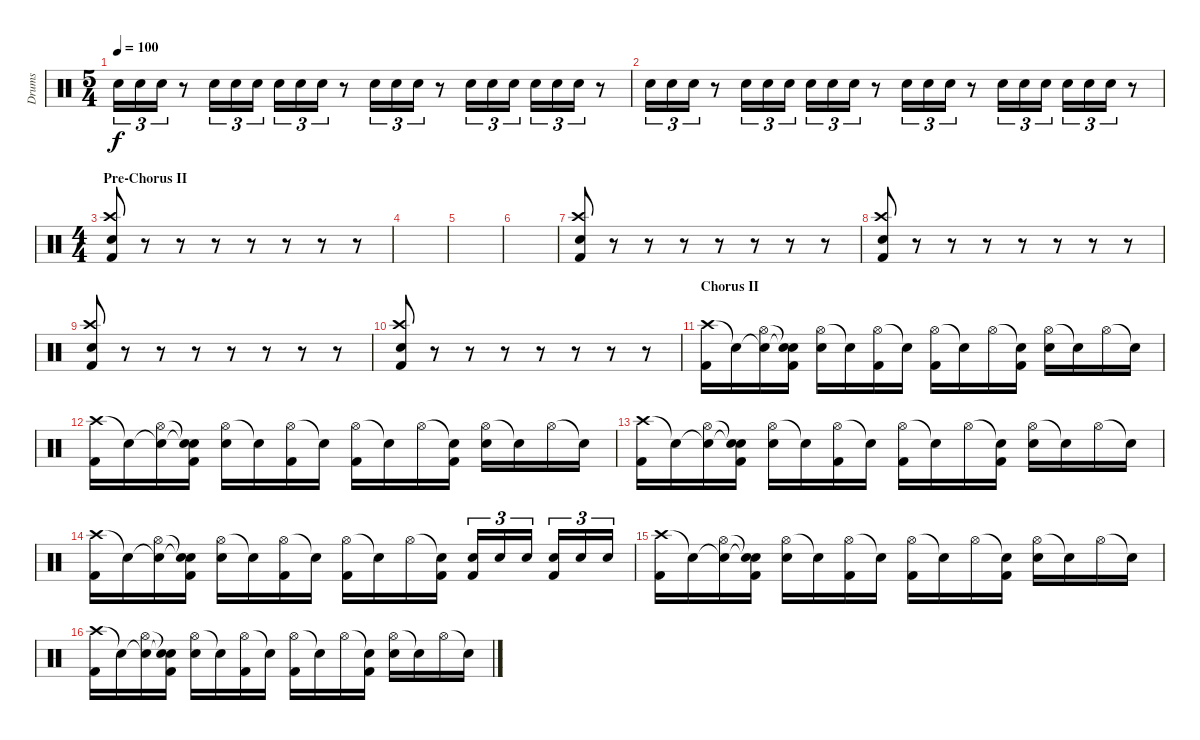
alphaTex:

\track ("Drums" "Drums") {instrument percussion}
\staff {score}
\articulation defaults
\ts (5 4)
\tempo 100
\clef neutral
\ks c "Electric Snare (hit)".16{tu (3 2) dy f} "Electric Snare (hit)".16{tu (3 2)} "Electric Snare (hit)".16{tu (3 2)}
r.8 "Electric Snare (hit)".16{tu (3 2)} "Electric Snare (hit)".16{tu (3 2)} "Electric Snare (hit)".16{tu (3 2)} "Electric Snare (hit)".16{tu (3 2)} "Electric Snare (hit)".16{tu (3 2)} "Electric Snare (hit)".16{tu (3 2)} r.8 "Electric Snare (hit)".16{tu (3 2)} "Electric Snare (hit)".16{tu (3 2)} "Electric Snare (hit)".16{tu (3 2)} r.8 "Electric Snare (hit)".16{tu (3 2)} "Electric Snare (hit)".16{tu (3 2)} "Electric Snare (hit)".16{tu (3 2)} "Electric Snare (hit)".16{tu (3 2)} "Electric Snare (hit)".16{tu (3 2)} "Electric Snare (hit)".16{tu (3 2)} r.8 |
"Electric Snare (hit)".16{tu (3 2)} "Electric Snare (hit)".16{tu (3 2)} "Electric Snare (hit)".16{tu (3 2)} r.8 "Electric Snare (hit)".16{tu (3 2)} "Electric Snare (hit)".16{tu (3 2)} "Electric Snare (hit)".16{tu (3 2)} "Electric Snare (hit)".16{tu (3 2)} "Electric Snare (hit)".16{tu (3 2)} "Electric Snare (hit)".16{tu (3 2)} r.8 "Electric Snare (hit)".16{tu (3 2)} "Electric Snare (hit)".16{tu (3 2)} "Electric Snare (hit)".16{tu (3 2)} r.8 "Electric Snare (hit)".16{tu (3 2)} "Electric Snare (hit)".16{tu (3 2)} "Electric Snare (hit)".16{tu (3 2)} "Electric Snare (hit)".16{tu (3 2)} "Electric Snare (hit)".16{tu (3 2)} "Electric Snare (hit)".16{tu (3 2)} r.8 |
\ts (4 4)
\section ("" "Pre-Chorus II")
("Crash high (hit)" "Electric Snare (hit)" "Kick (hit) 2").8 r.8 r.8 r.8 r.8 r.8 r.8 r.8 |
|
|
|
("Crash high (hit)" "Electric Snare (hit)" "Kick (hit) 2").8 r.8 r.8 r.8 r.8 r.8 r.8 r.8 |
("Crash high (hit)" "Electric Snare (hit)" "Kick (hit) 2").8 r.8 r.8 r.8 r.8 r.8 r.8 r.8 |
("Crash high (hit)" "Electric Snare (hit)" "Kick (hit) 2").8 r.8 r.8 r.8 r.8 r.8 r.8 r.8 |
("Crash high (hit)" "Electric Snare (hit)" "Kick (hit) 2").8 r.8 r.8 r.8 r.8 r.8 r.8 r.8 |
\section ("" "Chorus II")
("Crash high (hit)" "Kick (hit) 2").16 "Snare (hit)"{t}.16 ("Snare (hit)"{t} "Hi-Hat (open)").16 ("Snare (hit)"{t} "Snare (hit)"{t} "Kick (hit) 2").16 ("Hi-Hat (open)" "Electric Snare (hit)").16 "Snare (hit)"{t}.16 ("Hi-Hat (open)" "Kick (hit) 2").16 "Snare (hit)"{t}.16 ("Hi-Hat (open)" "Kick (hit) 2").16 "Snare (hit)"{t}.16 "Hi-Hat (open)".16 ("Snare (hit)"{t} "Kick (hit) 2").16 ("Hi-Hat (open)" "Electric Snare (hit)").16 "Snare (hit)"{t}.16 "Hi-Hat (open)".16 "Snare (hit)"{t}.16 |
("Crash high (hit)" "Kick (hit) 2").16 "Snare (hit)"{t}.16 ("Snare (hit)"{t} "Hi-Hat (open)").16 ("Snare (hit)"{t} "Snare (hit)"{t} "Kick (hit) 2").16 ("Hi-Hat (open)" "Electric Snare (hit)").16 "Snare (hit)"{t}.16 ("Hi-Hat (open)" "Kick (hit) 2").16 "Snare (hit)"{t}.16 ("Hi-Hat (open)" "Kick (hit) 2").16 "Snare (hit)"{t}.16 "Hi-Hat (open)".16 ("Snare (hit)"{t} "Kick (hit) 2").16 ("Hi-Hat (open)" "Electric Snare (hit)").16 "Snare (hit)"{t}.16 "Hi-Hat (open)".16 "Snare (hit)"{t}.16 |
("Crash high (hit)" "Kick (hit) 2").16 "Snare (hit)"{t}.16 ("Snare (hit)"{t} "Hi-Hat (open)").16 ("Snare (hit)"{t} "Snare (hit)"{t} "Kick (hit) 2").16 ("Hi-Hat (open)" "Electric Snare (hit)").16 "Snare (hit)"{t}.16 ("Hi-Hat (open)" "Kick (hit) 2").16 "Snare (hit)"{t}.16 ("Hi-Hat (open)" "Kick (hit) 2").16 "Snare (hit)"{t}.16 "Hi-Hat (open)".16 ("Snare (hit)"{t} "Kick (hit) 2").16 ("Hi-Hat (open)" "Electric Snare (hit)").16 "Snare (hit)"{t}.16 "Hi-Hat (open)".16 "Snare (hit)"{t}.16 |
("Crash high (hit)" "Kick (hit) 2").16 "Snare (hit)"{t}.16 ("Snare (hit)"{t} "Hi-Hat (open)").16 ("Snare (hit)"{t} "Snare (hit)"{t} "Kick (hit) 2").16 ("Hi-Hat (open)" "Electric Snare (hit)").16 "Snare (hit)"{t}.16 ("Hi-Hat (open)" "Kick (hit) 2").16 "Snare (hit)"{t}.16 ("Hi-Hat (open)" "Kick (hit) 2").16 "Snare (hit)"{t}.16 "Hi-Hat (open)".16 ("Snare (hit)"{t} "Kick (hit) 2").16 ("Electric Snare (hit)" "Kick (hit) 2").16{tu (3 2)} "Electric Snare (hit)".16{tu (3 2)} "Electric Snare (hit)".16{tu (3 2)} ("Electric Snare (hit)" "Kick (hit) 2").16{tu (3 2)} "Electric Snare (hit)".16{tu (3 2)} "Electric Snare (hit)".16{tu (3 2)} |
("Crash high (hit)" "Kick (hit) 2").16 "Snare (hit)"{t}.16 ("Snare (hit)"{t} "Hi-Hat (open)").16 ("Snare (hit)"{t} "Snare (hit)"{t} "Kick (hit) 2").16 ("Hi-Hat (open)" "Electric Snare (hit)").16 "Snare (hit)"{t}.16 ("Hi-Hat (open)" "Kick (hit) 2").16 "Snare (hit)"{t}.16 ("Hi-Hat (open)" "Kick (hit) 2").16 "Snare (hit)"{t}.16 "Hi-Hat (open)".16 ("Snare (hit)"{t} "Kick (hit) 2").16 ("Hi-Hat (open)" "Electric Snare (hit)").16 "Snare (hit)"{t}.16 "Hi-Hat (open)".16 "Snare (hit)"{t}.16 |
("Crash high (hit)" "Kick (hit) 2").16 "Snare (hit)"{t}.16 ("Snare (hit)"{t} "Hi-Hat (open)").16 ("Snare (hit)"{t} "Snare (hit)"{t} "Kick (hit) 2").16 ("Hi-Hat (open)" "Electric Snare (hit)").16 "Snare (hit)"{t}.16 ("Hi-Hat (open)" "Kick (hit) 2").16 "Snare (hit)"{t}.16 ("Hi-Hat (open)" "Kick (hit) 2").16 "Snare (hit)"{t}.16 "Hi-Hat (open)".16 ("Snare (hit)"{t} "Kick (hit) 2").16 ("Hi-Hat (open)" "Electric Snare (hit)").16 "Snare (hit)"{t}.16 "Hi-Hat (open)".16 "Snare (hit)"{t}.16
